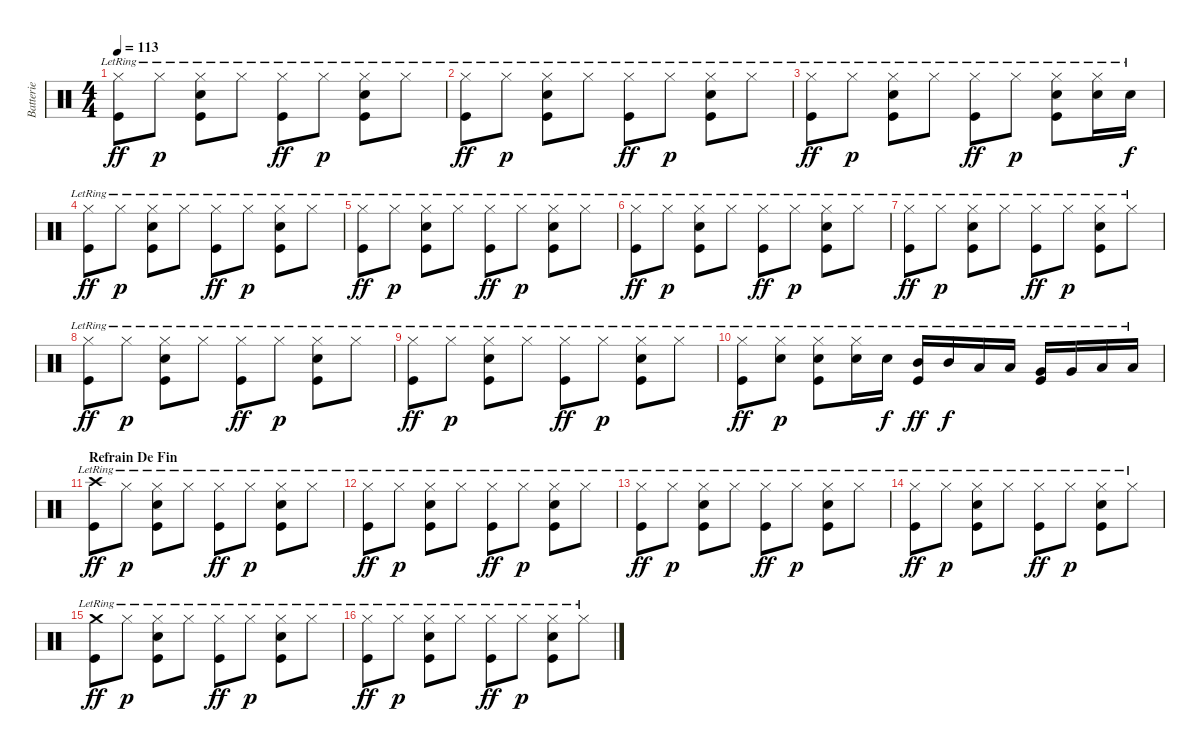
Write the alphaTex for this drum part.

\track ("Batterie" "Batterie") {instrument percussion}
\staff {score}
\articulation defaults
\ts (4 4)
\tempo 113
\clef neutral
\ks c
("Hi-Hat (closed)"{lr} "Kick (hit)"{lr}).8{dy ff} "Hi-Hat (closed)"{lr}.8{dy p} ("Hi-Hat (closed)"{lr} "Snare (hit) 2"{lr} "Kick (hit)"{lr}).8 "Hi-Hat (closed)"{lr}.8 ("Hi-Hat (closed)"{lr} "Kick (hit)"{lr}).8{dy ff} "Hi-Hat (closed)"{lr}.8{dy p} ("Hi-Hat (closed)"{lr} "Snare (hit) 2"{lr} "Kick (hit)"{lr}).8 "Hi-Hat (closed)"{lr}.8 |
("Hi-Hat (closed)"{lr} "Kick (hit)"{lr}).8{dy ff} "Hi-Hat (closed)"{lr}.8{dy p} ("Hi-Hat (closed)"{lr} "Snare (hit) 2"{lr} "Kick (hit)"{lr}).8 "Hi-Hat (closed)"{lr}.8 ("Hi-Hat (closed)"{lr} "Kick (hit)"{lr}).8{dy ff} "Hi-Hat (closed)"{lr}.8{dy p} ("Hi-Hat (closed)"{lr} "Snare (hit) 2"{lr} "Kick (hit)"{lr}).8 "Hi-Hat (closed)"{lr}.8 |
("Hi-Hat (closed)"{lr} "Kick (hit)"{lr}).8{dy ff} "Hi-Hat (closed)"{lr}.8{dy p} ("Hi-Hat (closed)"{lr} "Snare (hit) 2"{lr} "Kick (hit)"{lr}).8 "Hi-Hat (closed)"{lr}.8 ("Hi-Hat (closed)"{lr} "Kick (hit)"{lr}).8{dy ff} "Hi-Hat (closed)"{lr}.8{dy p} ("Hi-Hat (closed)"{lr} "Snare (hit) 2"{lr} "Kick (hit)"{lr}).8 ("Hi-Hat (closed)"{lr} "Snare (hit) 2"{lr}).16 "Snare (hit) 2"{lr}.16{dy f} |
("Hi-Hat (closed)"{lr} "Kick (hit)"{lr}).8{dy ff} "Hi-Hat (closed)"{lr}.8{dy p} ("Hi-Hat (closed)"{lr} "Snare (hit) 2"{lr} "Kick (hit)"{lr}).8 "Hi-Hat (closed)"{lr}.8 ("Hi-Hat (closed)"{lr} "Kick (hit)"{lr}).8{dy ff} "Hi-Hat (closed)"{lr}.8{dy p} ("Hi-Hat (closed)"{lr} "Snare (hit) 2"{lr} "Kick (hit)"{lr}).8 "Hi-Hat (closed)"{lr}.8 |
("Hi-Hat (closed)"{lr} "Kick (hit)"{lr}).8{dy ff} "Hi-Hat (closed)"{lr}.8{dy p} ("Hi-Hat (closed)"{lr} "Snare (hit) 2"{lr} "Kick (hit)"{lr}).8 "Hi-Hat (closed)"{lr}.8 ("Hi-Hat (closed)"{lr} "Kick (hit)"{lr}).8{dy ff} "Hi-Hat (closed)"{lr}.8{dy p} ("Hi-Hat (closed)"{lr} "Snare (hit) 2"{lr} "Kick (hit)"{lr}).8 "Hi-Hat (closed)"{lr}.8 |
("Hi-Hat (closed)"{lr} "Kick (hit)"{lr}).8{dy ff} "Hi-Hat (closed)"{lr}.8{dy p} ("Hi-Hat (closed)"{lr} "Snare (hit) 2"{lr} "Kick (hit)"{lr}).8 "Hi-Hat (closed)"{lr}.8 ("Hi-Hat (closed)"{lr} "Kick (hit)"{lr}).8{dy ff} "Hi-Hat (closed)"{lr}.8{dy p} ("Hi-Hat (closed)"{lr} "Snare (hit) 2"{lr} "Kick (hit)"{lr}).8 "Hi-Hat (closed)"{lr}.8 |
("Hi-Hat (closed)"{lr} "Kick (hit)"{lr}).8{dy ff} "Hi-Hat (closed)"{lr}.8{dy p} ("Hi-Hat (closed)"{lr} "Snare (hit) 2"{lr} "Kick (hit)"{lr}).8 "Hi-Hat (closed)"{lr}.8 ("Hi-Hat (closed)"{lr} "Kick (hit)"{lr}).8{dy ff} "Hi-Hat (closed)"{lr}.8{dy p} ("Hi-Hat (closed)"{lr} "Snare (hit) 2"{lr} "Kick (hit)"{lr}).8 "Hi-Hat (closed)"{lr}.8 |
("Hi-Hat (closed)"{lr} "Kick (hit)"{lr}).8{dy ff} "Hi-Hat (closed)"{lr}.8{dy p} ("Hi-Hat (closed)"{lr} "Snare (hit) 2"{lr} "Kick (hit)"{lr}).8 "Hi-Hat (closed)"{lr}.8 ("Hi-Hat (closed)"{lr} "Kick (hit)"{lr}).8{dy ff} "Hi-Hat (closed)"{lr}.8{dy p} ("Hi-Hat (closed)"{lr} "Snare (hit) 2"{lr} "Kick (hit)"{lr}).8 "Hi-Hat (closed)"{lr}.8 |
("Hi-Hat (closed)"{lr} "Kick (hit)"{lr}).8{dy ff} "Hi-Hat (closed)"{lr}.8{dy p} ("Hi-Hat (closed)"{lr} "Snare (hit) 2"{lr} "Kick (hit)"{lr}).8 "Hi-Hat (closed)"{lr}.8 ("Hi-Hat (closed)"{lr} "Kick (hit)"{lr}).8{dy ff} "Hi-Hat (closed)"{lr}.8{dy p} ("Hi-Hat (closed)"{lr} "Snare (hit) 2"{lr} "Kick (hit)"{lr}).8 "Hi-Hat (closed)"{lr}.8 |
("Hi-Hat (closed)"{lr} "Kick (hit)"{lr}).8{dy ff} ("Hi-Hat (closed)"{lr} "Snare (hit) 2"{lr}).8{dy p} ("Hi-Hat (closed)"{lr} "Snare (hit) 2"{lr} "Kick (hit)"{lr}).8 ("Hi-Hat (closed)"{lr} "Snare (hit) 2"{lr}).16 "Snare (hit) 2"{lr}.16{dy f} ("Mid Tom (hit)"{lr} "Kick (hit)"{lr}).16{dy ff} "Mid Tom (hit)"{lr}.16{dy f} "Low Tom (hit)"{lr}.16 "Low Tom (hit)"{lr}.16 ("Very Low Tom (hit)"{lr} "Kick (hit)"{lr}).16 "Very Low Tom (hit)"{lr}.16 "Low Floor Tom (hit)"{lr}.16 "Low Floor Tom (hit)"{lr}.16 |
\section ("" "Refrain De Fin")
("Crash high (hit)"{lr} "Kick (hit)"{lr}).8{dy ff} "Hi-Hat (closed)"{lr}.8{dy p} ("Hi-Hat (closed)"{lr} "Snare (hit) 2"{lr} "Kick (hit)"{lr}).8 "Hi-Hat (closed)"{lr}.8 ("Hi-Hat (closed)"{lr} "Kick (hit)"{lr}).8{dy ff} "Hi-Hat (closed)"{lr}.8{dy p} ("Hi-Hat (closed)"{lr} "Snare (hit) 2"{lr} "Kick (hit)"{lr}).8 "Hi-Hat (closed)"{lr}.8 |
("Hi-Hat (closed)"{lr} "Kick (hit)"{lr}).8{dy ff} "Hi-Hat (closed)"{lr}.8{dy p} ("Hi-Hat (closed)"{lr} "Snare (hit) 2"{lr} "Kick (hit)"{lr}).8 "Hi-Hat (closed)"{lr}.8 ("Hi-Hat (closed)"{lr} "Kick (hit)"{lr}).8{dy ff} "Hi-Hat (closed)"{lr}.8{dy p} ("Hi-Hat (closed)"{lr} "Snare (hit) 2"{lr} "Kick (hit)"{lr}).8 "Hi-Hat (closed)"{lr}.8 |
("Hi-Hat (closed)"{lr} "Kick (hit)"{lr}).8{dy ff} "Hi-Hat (closed)"{lr}.8{dy p} ("Hi-Hat (closed)"{lr} "Snare (hit) 2"{lr} "Kick (hit)"{lr}).8 "Hi-Hat (closed)"{lr}.8 ("Hi-Hat (closed)"{lr} "Kick (hit)"{lr}).8{dy ff} "Hi-Hat (closed)"{lr}.8{dy p} ("Hi-Hat (closed)"{lr} "Snare (hit) 2"{lr} "Kick (hit)"{lr}).8 "Hi-Hat (closed)"{lr}.8 |
("Hi-Hat (closed)"{lr} "Kick (hit)"{lr}).8{dy ff} "Hi-Hat (closed)"{lr}.8{dy p} ("Hi-Hat (closed)"{lr} "Snare (hit) 2"{lr} "Kick (hit)"{lr}).8 "Hi-Hat (closed)"{lr}.8 ("Hi-Hat (closed)"{lr} "Kick (hit)"{lr}).8{dy ff} "Hi-Hat (closed)"{lr}.8{dy p} ("Hi-Hat (closed)"{lr} "Snare (hit) 2"{lr} "Kick (hit)"{lr}).8 "Hi-Hat (closed)"{lr}.8 |
("Crash medium (hit)"{lr} "Kick (hit)"{lr}).8{dy ff} "Hi-Hat (closed)"{lr}.8{dy p} ("Hi-Hat (closed)"{lr} "Snare (hit) 2"{lr} "Kick (hit)"{lr}).8 "Hi-Hat (closed)"{lr}.8 ("Hi-Hat (closed)"{lr} "Kick (hit)"{lr}).8{dy ff} "Hi-Hat (closed)"{lr}.8{dy p} ("Hi-Hat (closed)"{lr} "Snare (hit) 2"{lr} "Kick (hit)"{lr}).8 "Hi-Hat (closed)"{lr}.8 |
("Hi-Hat (closed)"{lr} "Kick (hit)"{lr}).8{dy ff} "Hi-Hat (closed)"{lr}.8{dy p} ("Hi-Hat (closed)"{lr} "Snare (hit) 2"{lr} "Kick (hit)"{lr}).8 "Hi-Hat (closed)"{lr}.8 ("Hi-Hat (closed)"{lr} "Kick (hit)"{lr}).8{dy ff} "Hi-Hat (closed)"{lr}.8{dy p} ("Hi-Hat (closed)"{lr} "Snare (hit) 2"{lr} "Kick (hit)"{lr}).8 "Hi-Hat (closed)"{lr}.8
